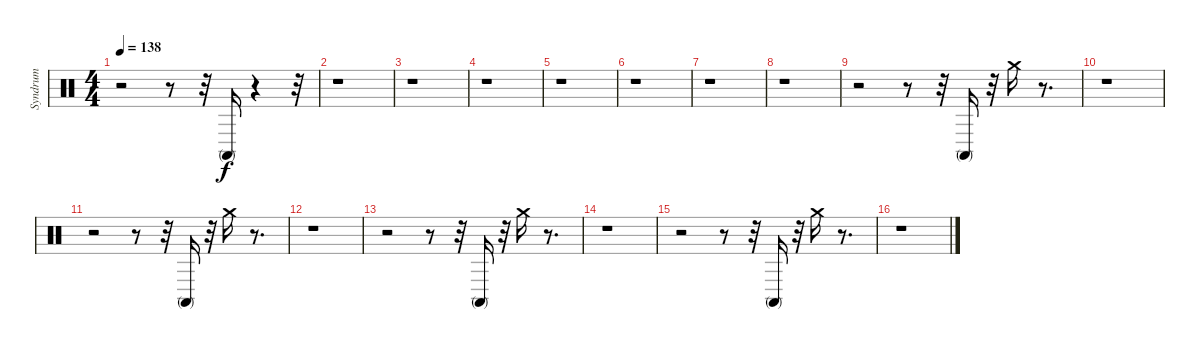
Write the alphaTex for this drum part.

\track ("Syndrum" "Syndrum") {instrument percussion}
\staff {score}
\articulation defaults
\ts (4 4)
\tempo 138
\clef neutral
\ks c
r.2{dy mf} r.8 r.32 "Conga high (mute)".16{dy f} r.4 r.32 |
r.1 |
r.1 |
r.1 |
r.1 |
r.1 |
r.1 |
r.1 |
r.2 r.8 r.32 "Conga high (mute)".16 r.32 "Crash medium (hit)".16 r.8{d} |
r.1 |
r.2 r.8 r.32 "Conga high (mute)".16 r.32 "Crash medium (hit)".16 r.8{d} |
r.1 |
r.2 r.8 r.32 "Conga high (mute)".16 r.32 "Crash medium (hit)".16 r.8{d} |
r.1 |
r.2 r.8 r.32 "Conga high (mute)".16 r.32 "Crash medium (hit)".16 r.8{d} |
r.1
